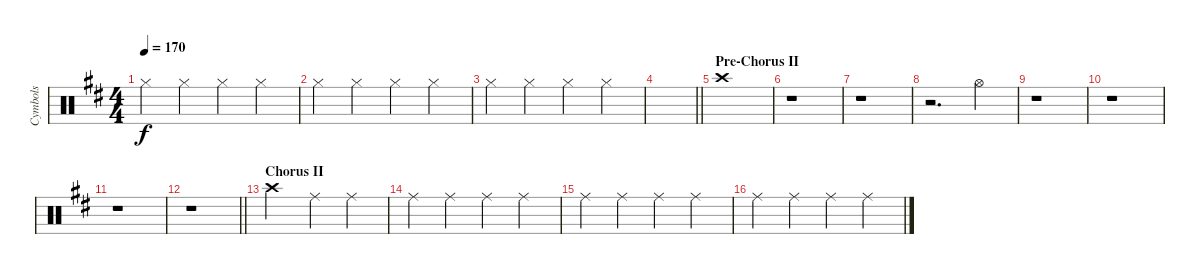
\track ("Cymbols" "Cymbols") {instrument percussion}
\staff {score}
\articulation defaults
\ts (4 4)
\tempo 170
\clef neutral
\ks d "Hi-Hat (closed)".4{dy f} "Hi-Hat (closed)".4 "Hi-Hat (closed)".4 "Hi-Hat (closed)".4
|
"Hi-Hat (closed)".4 "Hi-Hat (closed)".4 "Hi-Hat (closed)".4 "Hi-Hat (closed)".4 |
"Hi-Hat (closed)".4 "Hi-Hat (closed)".4 "Hi-Hat (closed)".4 "Hi-Hat (closed)".4 |
\barLineRight lightlight
|
\section ("" "Pre-Chorus II")
"Crash high (hit)".1 |
r.1 |
r.1 |
r.2{d} "Hi-Hat (open)".4 |
r.1 |
r.1 |
r.1 |
\barLineRight lightlight
r.1 |
\section ("" "Chorus II")
"Crash high (hit)".2 "Ride (middle)".4 "Ride (middle)".4 |
"Ride (middle)".4 "Ride (middle)".4 "Ride (middle)".4 "Ride (middle)".4 |
"Ride (middle)".4 "Ride (middle)".4 "Ride (middle)".4 "Ride (middle)".4 |
"Ride (middle)".4 "Ride (middle)".4 "Ride (middle)".4 "Ride (middle)".4
